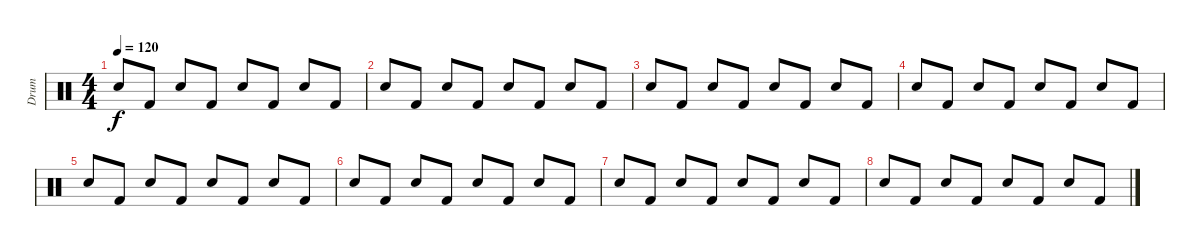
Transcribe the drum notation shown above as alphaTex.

\track ("Drum" "Drum") {instrument percussion}
\staff {score}
\articulation defaults
\ts (4 4)
\tempo 120
\clef neutral
\ks c "Snare (hit) 2".8{dy f} "Kick (hit) 2".8 "Snare (hit) 2".8 "Kick (hit) 2".8 "Snare (hit) 2".8 "Kick (hit) 2".8 "Snare (hit) 2".8 "Kick (hit) 2".8
|
"Snare (hit) 2".8 "Kick (hit) 2".8 "Snare (hit) 2".8 "Kick (hit) 2".8 "Snare (hit) 2".8 "Kick (hit) 2".8 "Snare (hit) 2".8 "Kick (hit) 2".8 |
"Snare (hit) 2".8 "Kick (hit) 2".8 "Snare (hit) 2".8 "Kick (hit) 2".8 "Snare (hit) 2".8 "Kick (hit) 2".8 "Snare (hit) 2".8 "Kick (hit) 2".8 |
"Snare (hit) 2".8 "Kick (hit) 2".8 "Snare (hit) 2".8 "Kick (hit) 2".8 "Snare (hit) 2".8 "Kick (hit) 2".8 "Snare (hit) 2".8 "Kick (hit) 2".8 |
"Snare (hit) 2".8 "Kick (hit) 2".8 "Snare (hit) 2".8 "Kick (hit) 2".8 "Snare (hit) 2".8 "Kick (hit) 2".8 "Snare (hit) 2".8 "Kick (hit) 2".8 |
"Snare (hit) 2".8 "Kick (hit) 2".8 "Snare (hit) 2".8 "Kick (hit) 2".8 "Snare (hit) 2".8 "Kick (hit) 2".8 "Snare (hit) 2".8 "Kick (hit) 2".8 |
"Snare (hit) 2".8 "Kick (hit) 2".8 "Snare (hit) 2".8 "Kick (hit) 2".8 "Snare (hit) 2".8 "Kick (hit) 2".8 "Snare (hit) 2".8 "Kick (hit) 2".8 |
"Snare (hit) 2".8 "Kick (hit) 2".8 "Snare (hit) 2".8 "Kick (hit) 2".8 "Snare (hit) 2".8 "Kick (hit) 2".8 "Snare (hit) 2".8 "Kick (hit) 2".8
